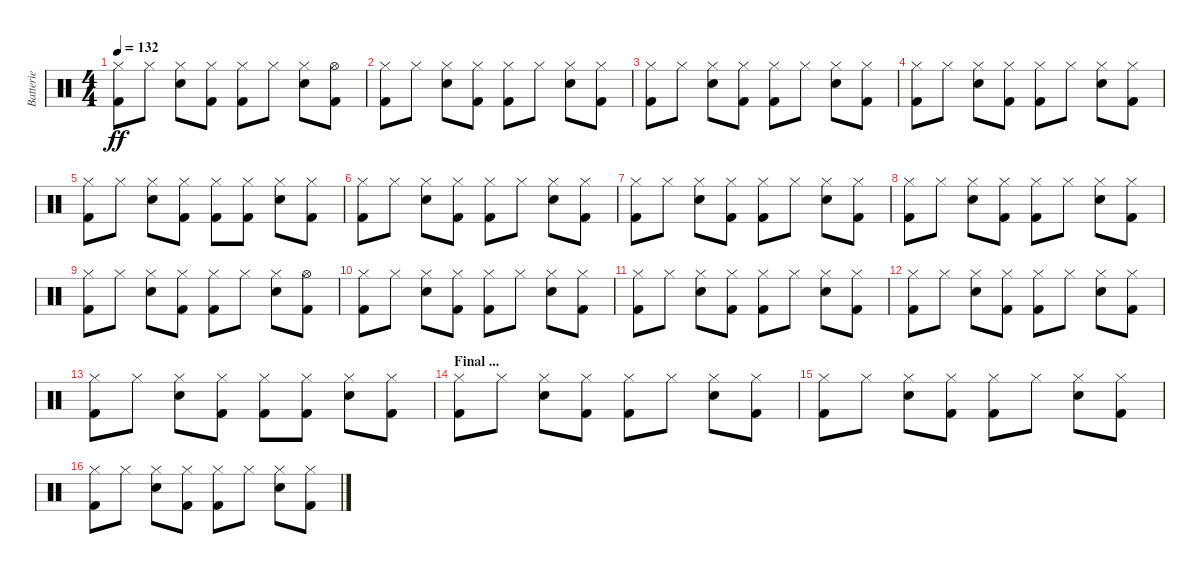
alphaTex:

\track ("Batterie" "Batterie") {instrument percussion}
\staff {score}
\articulation defaults
\ts (4 4)
\tempo 132
\clef neutral
\ks c
("Kick (hit) 2" "Hi-Hat (closed)").8{dy ff} "Hi-Hat (closed)".8 ("Snare (hit) 2" "Hi-Hat (closed)").8 ("Kick (hit) 2" "Hi-Hat (closed)").8 ("Kick (hit) 2" "Hi-Hat (closed)").8 "Hi-Hat (closed)".8 ("Snare (hit) 2" "Hi-Hat (closed)").8 ("Kick (hit) 2" "Hi-Hat (open)").8 |
("Kick (hit) 2" "Hi-Hat (closed)").8 "Hi-Hat (closed)".8 ("Snare (hit) 2" "Hi-Hat (closed)").8 ("Kick (hit) 2" "Hi-Hat (closed)").8 ("Kick (hit) 2" "Hi-Hat (closed)").8 "Hi-Hat (closed)".8 ("Snare (hit) 2" "Hi-Hat (closed)").8 ("Kick (hit) 2" "Hi-Hat (closed)").8 |
("Kick (hit) 2" "Hi-Hat (closed)").8 "Hi-Hat (closed)".8 ("Snare (hit) 2" "Hi-Hat (closed)").8 ("Kick (hit) 2" "Hi-Hat (closed)").8 ("Kick (hit) 2" "Hi-Hat (closed)").8 "Hi-Hat (closed)".8 ("Snare (hit) 2" "Hi-Hat (closed)").8 ("Kick (hit) 2" "Hi-Hat (closed)").8 |
("Kick (hit) 2" "Hi-Hat (closed)").8 "Hi-Hat (closed)".8 ("Snare (hit) 2" "Hi-Hat (closed)").8 ("Kick (hit) 2" "Hi-Hat (closed)").8 ("Kick (hit) 2" "Hi-Hat (closed)").8 "Hi-Hat (closed)".8 ("Snare (hit) 2" "Hi-Hat (closed)").8 ("Kick (hit) 2" "Hi-Hat (closed)").8 |
("Kick (hit) 2" "Hi-Hat (closed)").8 "Hi-Hat (closed)".8 ("Snare (hit) 2" "Hi-Hat (closed)").8 ("Kick (hit) 2" "Hi-Hat (closed)").8 ("Kick (hit) 2" "Hi-Hat (closed)").8 ("Kick (hit) 2" "Hi-Hat (closed)").8 ("Snare (hit) 2" "Hi-Hat (closed)").8 ("Kick (hit) 2" "Hi-Hat (closed)").8 |
("Kick (hit) 2" "Hi-Hat (closed)").8 "Hi-Hat (closed)".8 ("Snare (hit) 2" "Hi-Hat (closed)").8 ("Kick (hit) 2" "Hi-Hat (closed)").8 ("Kick (hit) 2" "Hi-Hat (closed)").8 "Hi-Hat (closed)".8 ("Snare (hit) 2" "Hi-Hat (closed)").8 ("Kick (hit) 2" "Hi-Hat (closed)").8 |
("Kick (hit) 2" "Hi-Hat (closed)").8 "Hi-Hat (closed)".8 ("Snare (hit) 2" "Hi-Hat (closed)").8 ("Kick (hit) 2" "Hi-Hat (closed)").8 ("Kick (hit) 2" "Hi-Hat (closed)").8 "Hi-Hat (closed)".8 ("Snare (hit) 2" "Hi-Hat (closed)").8 ("Kick (hit) 2" "Hi-Hat (closed)").8 |
("Kick (hit) 2" "Hi-Hat (closed)").8 "Hi-Hat (closed)".8 ("Snare (hit) 2" "Hi-Hat (closed)").8 ("Kick (hit) 2" "Hi-Hat (closed)").8 ("Kick (hit) 2" "Hi-Hat (closed)").8 "Hi-Hat (closed)".8 ("Snare (hit) 2" "Hi-Hat (closed)").8 ("Kick (hit) 2" "Hi-Hat (closed)").8 |
("Kick (hit) 2" "Hi-Hat (closed)").8 "Hi-Hat (closed)".8 ("Snare (hit) 2" "Hi-Hat (closed)").8 ("Kick (hit) 2" "Hi-Hat (closed)").8 ("Kick (hit) 2" "Hi-Hat (closed)").8 "Hi-Hat (closed)".8 ("Snare (hit) 2" "Hi-Hat (closed)").8 ("Kick (hit) 2" "Hi-Hat (open)").8 |
("Kick (hit) 2" "Hi-Hat (closed)").8 "Hi-Hat (closed)".8 ("Snare (hit) 2" "Hi-Hat (closed)").8 ("Kick (hit) 2" "Hi-Hat (closed)").8 ("Kick (hit) 2" "Hi-Hat (closed)").8 "Hi-Hat (closed)".8 ("Snare (hit) 2" "Hi-Hat (closed)").8 ("Kick (hit) 2" "Hi-Hat (closed)").8 |
("Kick (hit) 2" "Hi-Hat (closed)").8 "Hi-Hat (closed)".8 ("Snare (hit) 2" "Hi-Hat (closed)").8 ("Kick (hit) 2" "Hi-Hat (closed)").8 ("Kick (hit) 2" "Hi-Hat (closed)").8 "Hi-Hat (closed)".8 ("Snare (hit) 2" "Hi-Hat (closed)").8 ("Kick (hit) 2" "Hi-Hat (closed)").8 |
("Kick (hit) 2" "Hi-Hat (closed)").8 "Hi-Hat (closed)".8 ("Snare (hit) 2" "Hi-Hat (closed)").8 ("Kick (hit) 2" "Hi-Hat (closed)").8 ("Kick (hit) 2" "Hi-Hat (closed)").8 "Hi-Hat (closed)".8 ("Snare (hit) 2" "Hi-Hat (closed)").8 ("Kick (hit) 2" "Hi-Hat (closed)").8 |
("Kick (hit) 2" "Hi-Hat (closed)").8 "Hi-Hat (closed)".8 ("Snare (hit) 2" "Hi-Hat (closed)").8 ("Kick (hit) 2" "Hi-Hat (closed)").8 ("Kick (hit) 2" "Hi-Hat (closed)").8 ("Kick (hit) 2" "Hi-Hat (closed)").8 ("Snare (hit) 2" "Hi-Hat (closed)").8 ("Kick (hit) 2" "Hi-Hat (closed)").8 |
\section ("" "Final ...")
("Kick (hit) 2" "Hi-Hat (closed)").8 "Hi-Hat (closed)".8 ("Snare (hit) 2" "Hi-Hat (closed)").8 ("Kick (hit) 2" "Hi-Hat (closed)").8 ("Kick (hit) 2" "Hi-Hat (closed)").8 "Hi-Hat (closed)".8 ("Snare (hit) 2" "Hi-Hat (closed)").8 ("Kick (hit) 2" "Hi-Hat (closed)").8 |
("Kick (hit) 2" "Hi-Hat (closed)").8 "Hi-Hat (closed)".8 ("Snare (hit) 2" "Hi-Hat (closed)").8 ("Kick (hit) 2" "Hi-Hat (closed)").8 ("Kick (hit) 2" "Hi-Hat (closed)").8 "Hi-Hat (closed)".8 ("Snare (hit) 2" "Hi-Hat (closed)").8 ("Kick (hit) 2" "Hi-Hat (closed)").8 |
("Kick (hit) 2" "Hi-Hat (closed)").8 "Hi-Hat (closed)".8 ("Snare (hit) 2" "Hi-Hat (closed)").8 ("Kick (hit) 2" "Hi-Hat (closed)").8 ("Kick (hit) 2" "Hi-Hat (closed)").8 "Hi-Hat (closed)".8 ("Snare (hit) 2" "Hi-Hat (closed)").8 ("Kick (hit) 2" "Hi-Hat (closed)").8
